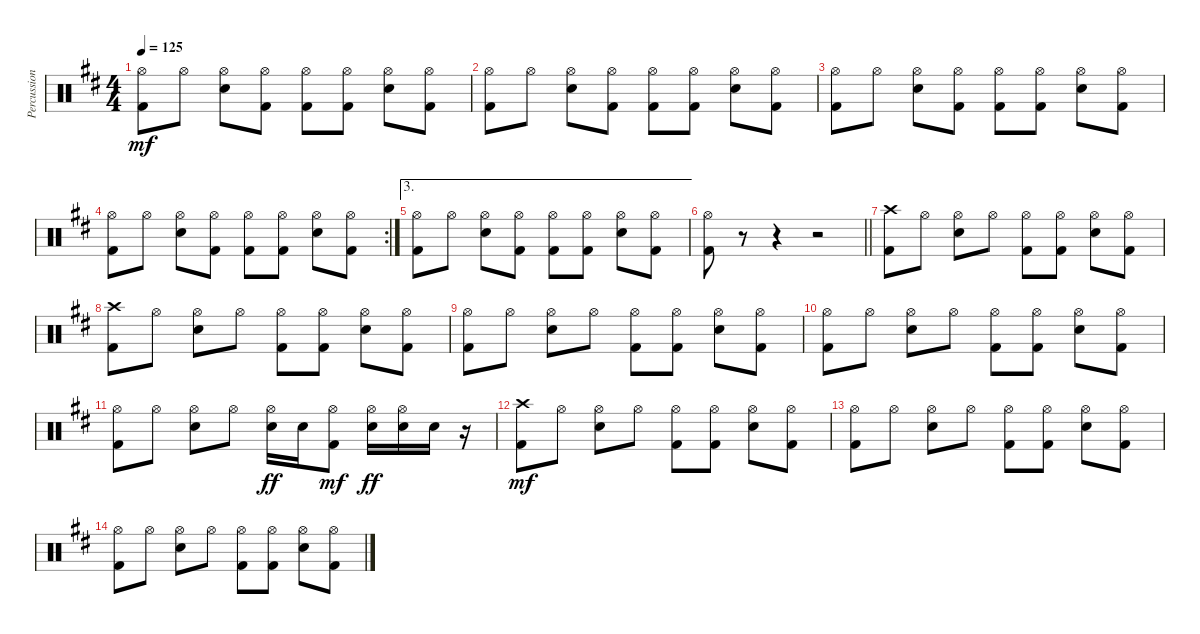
\track ("Percussion" "Percussion") {instrument percussion}
\staff {score}
\articulation defaults
\ts (4 4)
\tempo 125
\clef neutral
\ks d
("Hi-Hat (open)" "Kick (hit) 2").8{dy mf} "Hi-Hat (open)".8 ("Hi-Hat (open)" "Snare (hit) 2").8 ("Hi-Hat (open)" "Kick (hit) 2").8 ("Hi-Hat (open)" "Kick (hit) 2").8 ("Hi-Hat (open)" "Kick (hit) 2").8 ("Hi-Hat (open)" "Snare (hit) 2").8 ("Hi-Hat (open)" "Kick (hit) 2").8 |
("Hi-Hat (open)" "Kick (hit) 2").8 "Hi-Hat (open)".8 ("Hi-Hat (open)" "Snare (hit) 2").8 ("Hi-Hat (open)" "Kick (hit) 2").8 ("Hi-Hat (open)" "Kick (hit) 2").8 ("Hi-Hat (open)" "Kick (hit) 2").8 ("Hi-Hat (open)" "Snare (hit) 2").8 ("Hi-Hat (open)" "Kick (hit) 2").8 |
("Hi-Hat (open)" "Kick (hit) 2").8 "Hi-Hat (open)".8 ("Hi-Hat (open)" "Snare (hit) 2").8 ("Hi-Hat (open)" "Kick (hit) 2").8 ("Hi-Hat (open)" "Kick (hit) 2").8 ("Hi-Hat (open)" "Kick (hit) 2").8 ("Hi-Hat (open)" "Snare (hit) 2").8 ("Hi-Hat (open)" "Kick (hit) 2").8 |
\rc 2
("Hi-Hat (open)" "Kick (hit) 2").8 "Hi-Hat (open)".8 ("Hi-Hat (open)" "Snare (hit) 2").8 ("Hi-Hat (open)" "Kick (hit) 2").8 ("Hi-Hat (open)" "Kick (hit) 2").8 ("Hi-Hat (open)" "Kick (hit) 2").8 ("Hi-Hat (open)" "Snare (hit) 2").8 ("Hi-Hat (open)" "Kick (hit) 2").8 |
\ae 3
("Hi-Hat (open)" "Kick (hit) 2").8 "Hi-Hat (open)".8 ("Hi-Hat (open)" "Snare (hit) 2").8 ("Hi-Hat (open)" "Kick (hit) 2").8 ("Hi-Hat (open)" "Kick (hit) 2").8 ("Hi-Hat (open)" "Kick (hit) 2").8 ("Hi-Hat (open)" "Snare (hit) 2").8 ("Hi-Hat (open)" "Kick (hit) 2").8 |
\barLineRight lightlight
("Hi-Hat (open)" "Kick (hit) 2").8 r.8 r.4 r.2 |
("Crash high (hit)" "Kick (hit) 2").8 "Hi-Hat (open)".8 ("Hi-Hat (open)" "Snare (hit) 2").8 "Hi-Hat (open)".8 ("Hi-Hat (open)" "Kick (hit) 2").8 ("Hi-Hat (open)" "Kick (hit) 2").8 ("Hi-Hat (open)" "Snare (hit) 2").8 ("Hi-Hat (open)" "Kick (hit) 2").8 |
("Crash high (hit)" "Kick (hit) 2").8 "Hi-Hat (open)".8 ("Hi-Hat (open)" "Snare (hit) 2").8 "Hi-Hat (open)".8 ("Hi-Hat (open)" "Kick (hit) 2").8 ("Hi-Hat (open)" "Kick (hit) 2").8 ("Hi-Hat (open)" "Snare (hit) 2").8 ("Hi-Hat (open)" "Kick (hit) 2").8 |
("Hi-Hat (open)" "Kick (hit) 2").8 "Hi-Hat (open)".8 ("Hi-Hat (open)" "Snare (hit) 2").8 "Hi-Hat (open)".8 ("Hi-Hat (open)" "Kick (hit) 2").8 ("Hi-Hat (open)" "Kick (hit) 2").8 ("Hi-Hat (open)" "Snare (hit) 2").8 ("Hi-Hat (open)" "Kick (hit) 2").8 |
("Hi-Hat (open)" "Kick (hit) 2").8 "Hi-Hat (open)".8 ("Hi-Hat (open)" "Snare (hit) 2").8 "Hi-Hat (open)".8 ("Hi-Hat (open)" "Kick (hit) 2").8 ("Hi-Hat (open)" "Kick (hit) 2").8 ("Hi-Hat (open)" "Snare (hit) 2").8 ("Hi-Hat (open)" "Kick (hit) 2").8 |
("Hi-Hat (open)" "Kick (hit) 2").8 "Hi-Hat (open)".8 ("Hi-Hat (open)" "Snare (hit) 2").8 "Hi-Hat (open)".8 ("Hi-Hat (open)" "Snare (hit) 2").16{dy ff} "Snare (hit) 2".16 ("Hi-Hat (open)" "Kick (hit) 2").8{dy mf} ("Hi-Hat (open)" "Snare (hit) 2").16{dy ff} ("Hi-Hat (open)" "Snare (hit) 2").16 "Snare (hit) 2".16 r.16 |
("Crash high (hit)" "Kick (hit) 2").8{dy mf} "Hi-Hat (open)".8 ("Hi-Hat (open)" "Snare (hit) 2").8 "Hi-Hat (open)".8 ("Hi-Hat (open)" "Kick (hit) 2").8 ("Hi-Hat (open)" "Kick (hit) 2").8 ("Hi-Hat (open)" "Snare (hit) 2").8 ("Hi-Hat (open)" "Kick (hit) 2").8 |
("Hi-Hat (open)" "Kick (hit) 2").8 "Hi-Hat (open)".8 ("Hi-Hat (open)" "Snare (hit) 2").8 "Hi-Hat (open)".8 ("Hi-Hat (open)" "Kick (hit) 2").8 ("Hi-Hat (open)" "Kick (hit) 2").8 ("Hi-Hat (open)" "Snare (hit) 2").8 ("Hi-Hat (open)" "Kick (hit) 2").8 |
("Hi-Hat (open)" "Kick (hit) 2").8 "Hi-Hat (open)".8 ("Hi-Hat (open)" "Snare (hit) 2").8 "Hi-Hat (open)".8 ("Hi-Hat (open)" "Kick (hit) 2").8 ("Hi-Hat (open)" "Kick (hit) 2").8 ("Hi-Hat (open)" "Snare (hit) 2").8 ("Hi-Hat (open)" "Kick (hit) 2").8
